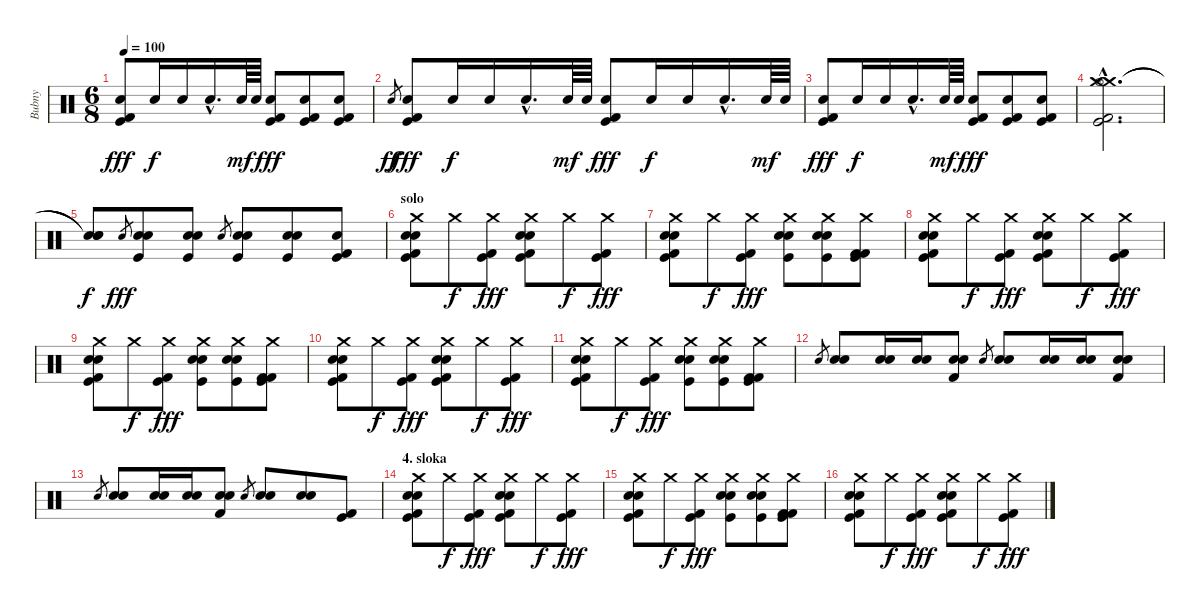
\track ("Bubny" "Bubny") {instrument percussion}
\staff {score}
\articulation defaults
\ts (6 8)
\tempo 100
\clef neutral
\ks c
("Electric Snare (hit)" "Kick (hit)" "Kick (hit) 2").8{dy fff} "Electric Snare (hit)".16{dy f} "Electric Snare (hit)".16 "Electric Snare (hit)"{hac}.16{d} "Electric Snare (hit)".64{dy mf} "Electric Snare (hit)".64 ("Electric Snare (hit)" "Kick (hit)" "Kick (hit) 2").8{dy fff} ("Electric Snare (hit)" "Kick (hit)" "Kick (hit) 2").8 ("Electric Snare (hit)" "Kick (hit)" "Kick (hit) 2").8 |
"Electric Snare (hit)".8{gr dy ff} ("Electric Snare (hit)" "Kick (hit)" "Kick (hit) 2").8{dy fff} "Electric Snare (hit)".16{dy f} "Electric Snare (hit)".16 "Electric Snare (hit)"{hac}.16{d} "Electric Snare (hit)".64{dy mf} "Electric Snare (hit)".64 ("Electric Snare (hit)" "Kick (hit)" "Kick (hit) 2").8{dy fff} "Electric Snare (hit)".16{dy f} "Electric Snare (hit)".16 "Electric Snare (hit)"{hac}.16{d} "Electric Snare (hit)".64{dy mf} "Electric Snare (hit)".64 |
("Electric Snare (hit)" "Kick (hit)" "Kick (hit) 2").8{dy fff} "Electric Snare (hit)".16{dy f} "Electric Snare (hit)".16 "Electric Snare (hit)"{hac}.16{d} "Electric Snare (hit)".64{dy mf} "Electric Snare (hit)".64 ("Electric Snare (hit)" "Kick (hit)" "Kick (hit) 2").8{dy fff} ("Electric Snare (hit)" "Kick (hit)" "Kick (hit) 2").8 ("Electric Snare (hit)" "Kick (hit)" "Kick (hit) 2").8 |
("Crash medium (hit)"{hac} "Crash medium (hit)"{hac} "Hi-Hat (open)"{hac} "Kick (hit)"{hac} "Kick (hit) 2"{hac}).2{d} |
("Snare (hit)"{t} "Snare (hit)"{t} "Snare (hit)"{t}).8{dy f} "Electric Snare (hit)".8{gr dy fff} ("Electric Snare (hit)" "Electric Snare (hit)" "Kick (hit)").8 ("Snare (hit) 2" "Snare (hit) 2" "Kick (hit)").8 "Electric Snare (hit)".8{gr} ("Electric Snare (hit)" "Electric Snare (hit)" "Kick (hit)").8 ("Snare (hit) 2" "Snare (hit) 2" "Kick (hit)").8 ("Snare (hit) 2" "Kick (hit)" "Kick (hit) 2").8 |
\section ("" "solo")
("Crash medium (hit)" "Electric Snare (hit)" "Snare (hit) 2" "Kick (hit)" "Kick (hit) 2").8 "Crash medium (hit)".8{dy f} ("Crash medium (hit)" "Kick (hit)" "Kick (hit) 2").8{dy fff} ("Crash medium (hit)" "Electric Snare (hit)" "Snare (hit) 2" "Kick (hit)" "Kick (hit) 2").8 "Crash medium (hit)".8{dy f} ("Crash medium (hit)" "Kick (hit)" "Kick (hit) 2").8{dy fff} |
("Crash medium (hit)" "Electric Snare (hit)" "Snare (hit) 2" "Kick (hit)" "Kick (hit) 2").8 "Crash medium (hit)".8{dy f} ("Crash medium (hit)" "Kick (hit)" "Kick (hit) 2").8{dy fff} ("Crash medium (hit)" "Electric Snare (hit)" "Electric Snare (hit)" "Kick (hit)").8 ("Crash medium (hit)" "Snare (hit) 2" "Snare (hit) 2" "Kick (hit)").8 ("Crash medium (hit)" "Kick (hit)" "Kick (hit) 2" "Kick (hit) 2").8 |
("Crash medium (hit)" "Electric Snare (hit)" "Snare (hit) 2" "Kick (hit)" "Kick (hit) 2").8 "Crash medium (hit)".8{dy f} ("Crash medium (hit)" "Kick (hit)" "Kick (hit) 2").8{dy fff} ("Crash medium (hit)" "Electric Snare (hit)" "Snare (hit) 2" "Kick (hit)" "Kick (hit) 2").8 "Crash medium (hit)".8{dy f} ("Crash medium (hit)" "Kick (hit)" "Kick (hit) 2").8{dy fff} |
("Crash medium (hit)" "Electric Snare (hit)" "Snare (hit) 2" "Kick (hit)" "Kick (hit) 2").8 "Crash medium (hit)".8{dy f} ("Crash medium (hit)" "Kick (hit)" "Kick (hit) 2").8{dy fff} ("Crash medium (hit)" "Electric Snare (hit)" "Electric Snare (hit)" "Kick (hit)").8 ("Crash medium (hit)" "Snare (hit) 2" "Snare (hit) 2" "Kick (hit)").8 ("Crash medium (hit)" "Kick (hit)" "Kick (hit) 2" "Kick (hit) 2").8 |
("Crash medium (hit)" "Electric Snare (hit)" "Snare (hit) 2" "Kick (hit)" "Kick (hit) 2").8 "Crash medium (hit)".8{dy f} ("Crash medium (hit)" "Kick (hit)" "Kick (hit) 2").8{dy fff} ("Crash medium (hit)" "Electric Snare (hit)" "Snare (hit) 2" "Kick (hit)" "Kick (hit) 2").8 "Crash medium (hit)".8{dy f} ("Crash medium (hit)" "Kick (hit)" "Kick (hit) 2").8{dy fff} |
("Crash medium (hit)" "Electric Snare (hit)" "Snare (hit) 2" "Kick (hit)" "Kick (hit) 2").8 "Crash medium (hit)".8{dy f} ("Crash medium (hit)" "Kick (hit)" "Kick (hit) 2").8{dy fff} ("Crash medium (hit)" "Electric Snare (hit)" "Electric Snare (hit)" "Kick (hit)").8 ("Crash medium (hit)" "Snare (hit) 2" "Snare (hit) 2" "Kick (hit)").8 ("Crash medium (hit)" "Kick (hit)" "Kick (hit) 2" "Kick (hit) 2").8 |
"Electric Snare (hit)".8{gr} ("Electric Snare (hit)" "Snare (hit) 2").8 ("Electric Snare (hit)" "Electric Snare (hit)").16 ("Snare (hit) 2" "Snare (hit) 2").16 ("Snare (hit) 2" "Snare (hit) 2" "Kick (hit) 2").8 "Electric Snare (hit)".8{gr} ("Electric Snare (hit)" "Snare (hit) 2").8 ("Electric Snare (hit)" "Electric Snare (hit)").16 ("Snare (hit) 2" "Snare (hit) 2").16 ("Snare (hit) 2" "Snare (hit) 2" "Kick (hit) 2").8 |
"Electric Snare (hit)".8{gr} ("Electric Snare (hit)" "Snare (hit) 2").8 ("Electric Snare (hit)" "Electric Snare (hit)").16 ("Snare (hit) 2" "Snare (hit) 2").16 ("Snare (hit) 2" "Snare (hit) 2" "Kick (hit) 2").8 "Electric Snare (hit)".8{gr} ("Electric Snare (hit)" "Electric Snare (hit)").8 ("Snare (hit) 2" "Snare (hit) 2").8 ("Kick (hit)" "Kick (hit) 2").8 |
\section ("" "4. sloka")
("Crash medium (hit)" "Electric Snare (hit)" "Snare (hit) 2" "Kick (hit)" "Kick (hit) 2").8 "Crash medium (hit)".8{dy f} ("Crash medium (hit)" "Kick (hit)" "Kick (hit) 2").8{dy fff} ("Crash medium (hit)" "Electric Snare (hit)" "Snare (hit) 2" "Kick (hit)" "Kick (hit) 2").8 "Crash medium (hit)".8{dy f} ("Crash medium (hit)" "Kick (hit)" "Kick (hit) 2").8{dy fff} |
("Crash medium (hit)" "Electric Snare (hit)" "Snare (hit) 2" "Kick (hit)" "Kick (hit) 2").8 "Crash medium (hit)".8{dy f} ("Crash medium (hit)" "Kick (hit)" "Kick (hit) 2").8{dy fff} ("Crash medium (hit)" "Electric Snare (hit)" "Electric Snare (hit)" "Kick (hit)").8 ("Crash medium (hit)" "Snare (hit) 2" "Snare (hit) 2" "Kick (hit)").8 ("Crash medium (hit)" "Kick (hit)" "Kick (hit) 2" "Kick (hit) 2").8 |
("Crash medium (hit)" "Electric Snare (hit)" "Snare (hit) 2" "Kick (hit)" "Kick (hit) 2").8 "Crash medium (hit)".8{dy f} ("Crash medium (hit)" "Kick (hit)" "Kick (hit) 2").8{dy fff} ("Crash medium (hit)" "Electric Snare (hit)" "Snare (hit) 2" "Kick (hit)" "Kick (hit) 2").8 "Crash medium (hit)".8{dy f} ("Crash medium (hit)" "Kick (hit)" "Kick (hit) 2").8{dy fff}
